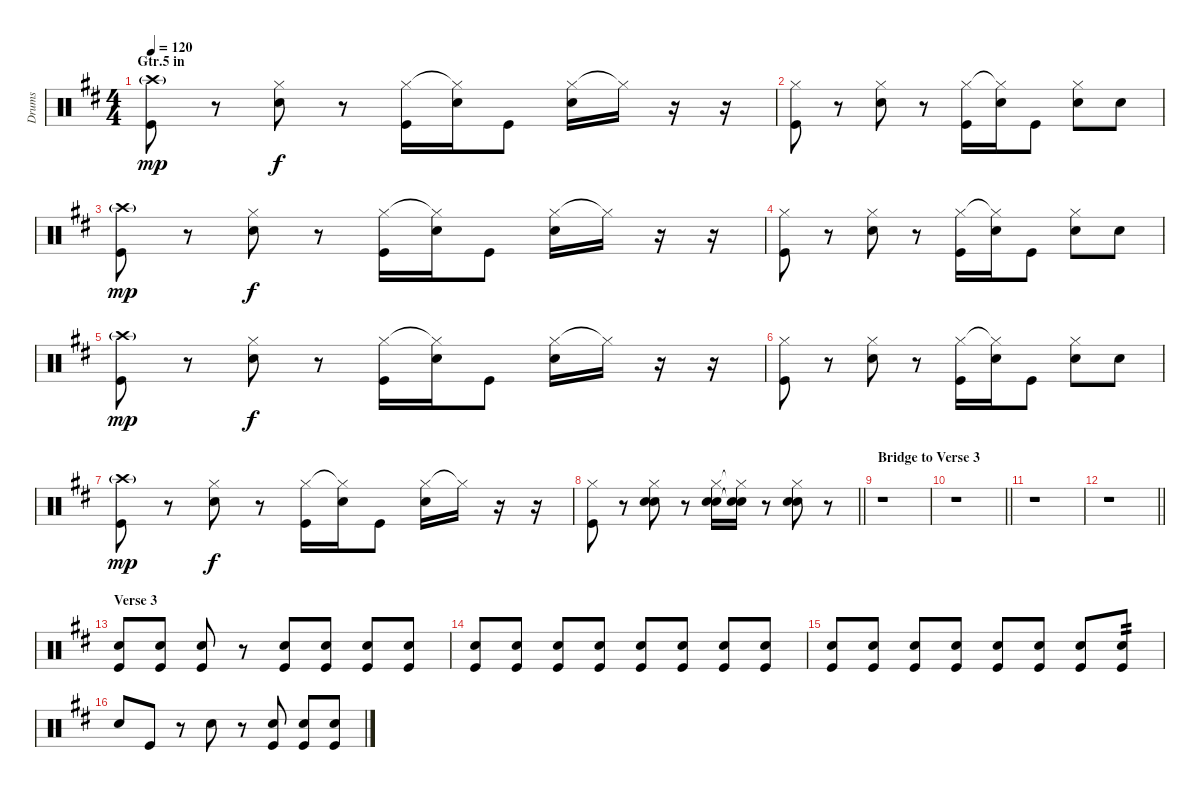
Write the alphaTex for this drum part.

\track ("Drums" "Drums") {instrument percussion}
\staff {score}
\articulation defaults
\ts (4 4)
\section ("" "Gtr.5 in")
\tempo 120
\clef neutral
\ks d
("Crash high (hit)"{g} "Kick (hit)").8{dy mp} r.8 ("Hi-Hat (closed)" "Snare (hit) 2").8{dy f} r.8 ("Hi-Hat (closed)" "Kick (hit)").16 ("Hi-Hat (closed)"{t} "Snare (hit) 2").16 "Kick (hit)".8 ("Hi-Hat (closed)" "Snare (hit) 2").16 "Hi-Hat (closed)"{t}.16 r.16 r.16 |
("Hi-Hat (closed)" "Kick (hit)").8 r.8 ("Hi-Hat (closed)" "Snare (hit) 2").8 r.8 ("Hi-Hat (closed)" "Kick (hit)").16 ("Hi-Hat (closed)"{t} "Snare (hit) 2").16 "Kick (hit)".8 ("Hi-Hat (closed)" "Snare (hit) 2").8 "Snare (hit) 2".8 |
("Crash high (hit)"{g} "Kick (hit)").8{dy mp} r.8 ("Hi-Hat (closed)" "Snare (hit) 2").8{dy f} r.8 ("Hi-Hat (closed)" "Kick (hit)").16 ("Hi-Hat (closed)"{t} "Snare (hit) 2").16 "Kick (hit)".8 ("Hi-Hat (closed)" "Snare (hit) 2").16 "Hi-Hat (closed)"{t}.16 r.16 r.16 |
("Hi-Hat (closed)" "Kick (hit)").8 r.8 ("Hi-Hat (closed)" "Snare (hit) 2").8 r.8 ("Hi-Hat (closed)" "Kick (hit)").16 ("Hi-Hat (closed)"{t} "Snare (hit) 2").16 "Kick (hit)".8 ("Hi-Hat (closed)" "Snare (hit) 2").8 "Snare (hit) 2".8 |
("Crash high (hit)"{g} "Kick (hit)").8{dy mp} r.8 ("Hi-Hat (closed)" "Snare (hit) 2").8{dy f} r.8 ("Hi-Hat (closed)" "Kick (hit)").16 ("Hi-Hat (closed)"{t} "Snare (hit) 2").16 "Kick (hit)".8 ("Hi-Hat (closed)" "Snare (hit) 2").16 "Hi-Hat (closed)"{t}.16 r.16 r.16 |
("Hi-Hat (closed)" "Kick (hit)").8 r.8 ("Hi-Hat (closed)" "Snare (hit) 2").8 r.8 ("Hi-Hat (closed)" "Kick (hit)").16 ("Hi-Hat (closed)"{t} "Snare (hit) 2").16 "Kick (hit)".8 ("Hi-Hat (closed)" "Snare (hit) 2").8 "Snare (hit) 2".8 |
("Crash high (hit)"{g} "Kick (hit)").8{dy mp} r.8 ("Hi-Hat (closed)" "Snare (hit) 2").8{dy f} r.8 ("Hi-Hat (closed)" "Kick (hit)").16 ("Hi-Hat (closed)"{t} "Snare (hit) 2").16 "Kick (hit)".8 ("Hi-Hat (closed)" "Snare (hit) 2").16 "Hi-Hat (closed)"{t}.16 r.16 r.16 |
\barLineRight lightlight
("Hi-Hat (closed)" "Kick (hit)").8 r.8 ("Hi-Hat (closed)" "Electric Snare (hit)" "Snare (hit) 2").8 r.8 ("Hi-Hat (closed)" "Electric Snare (hit)" "Snare (hit) 2").16 ("Hi-Hat (closed)"{t} "Electric Snare (hit)"{t} "Snare (hit) 2"{t}).16 r.8 ("Hi-Hat (closed)" "Electric Snare (hit)" "Snare (hit) 2").8 r.8 |
\section ("" "Bridge to Verse 3")
r.1 |
\barLineRight lightlight
r.1 |
r.1 |
\barLineRight lightlight
r.1 |
\section ("" "Verse 3")
("Snare (hit) 2" "Kick (hit)").8 ("Snare (hit) 2" "Kick (hit)").8 ("Snare (hit) 2" "Kick (hit)").8 r.8 ("Snare (hit) 2" "Kick (hit)").8 ("Snare (hit) 2" "Kick (hit)").8 ("Snare (hit) 2" "Kick (hit)").8 ("Snare (hit) 2" "Kick (hit)").8 |
("Snare (hit) 2" "Kick (hit)").8 ("Snare (hit) 2" "Kick (hit)").8 ("Snare (hit) 2" "Kick (hit)").8 ("Snare (hit) 2" "Kick (hit)").8 ("Snare (hit) 2" "Kick (hit)").8 ("Snare (hit) 2" "Kick (hit)").8 ("Snare (hit) 2" "Kick (hit)").8 ("Snare (hit) 2" "Kick (hit)").8 |
("Snare (hit) 2" "Kick (hit)").8 ("Snare (hit) 2" "Kick (hit)").8 ("Snare (hit) 2" "Kick (hit)").8 ("Snare (hit) 2" "Kick (hit)").8 ("Snare (hit) 2" "Kick (hit)").8 ("Snare (hit) 2" "Kick (hit)").8 ("Snare (hit) 2" "Kick (hit)").8 ("Snare (hit) 2" "Kick (hit)").8{tp 2} |
"Electric Snare (hit)".8 "Kick (hit)".8 r.8 "Electric Snare (hit)".8 r.8 ("Snare (hit) 2" "Kick (hit)").8 ("Snare (hit) 2" "Kick (hit)").8 ("Snare (hit) 2" "Kick (hit)").8
